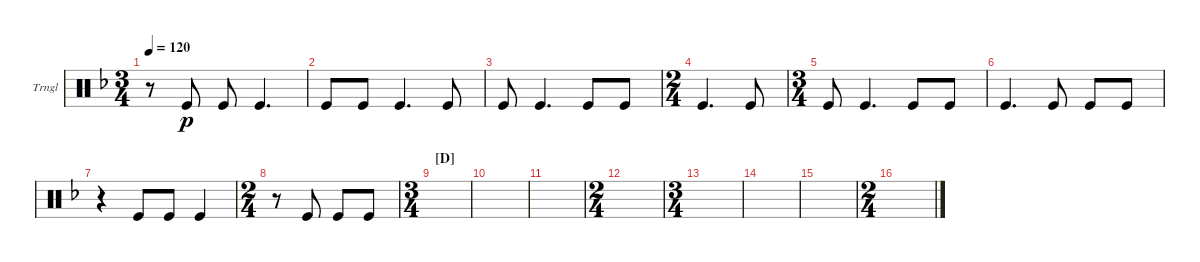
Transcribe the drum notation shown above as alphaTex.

\defaultSystemsLayout 4
\bracketExtendMode groupsimilarinstruments
\firstSystemTrackNameOrientation horizontal
\otherSystemsTrackNameOrientation horizontal
\track ("Triangle" "Trngl") {instrument percussion}
\staff {score}
\articulation defaults
\ts (3 4)
\tempo 120
\clef neutral
\scale
0.5
\ks f
r.8{dy p} "Kick (hit)".8 "Kick (hit)".8 "Kick (hit)".4{d} |
\scale
0.25 "Kick (hit)".8 "Kick (hit)".8 "Kick (hit)".4{d} "Kick (hit)".8 |
\scale
0.25 "Kick (hit)".8 "Kick (hit)".4{d} "Kick (hit)".8 "Kick (hit)".8 |
\ts (2 4)
\scale
0.4 "Kick (hit)".4{d} "Kick (hit)".8 |
\ts (3 4)
\scale
0.4 "Kick (hit)".8 "Kick (hit)".4{d} "Kick (hit)".8 "Kick (hit)".8 |
\scale
0.2 "Kick (hit)".4{d} "Kick (hit)".8 "Kick (hit)".8 "Kick (hit)".8 |
r.4 "Kick (hit)".8 "Kick (hit)".8 "Kick (hit)".4 |
\ts (2 4)
r.8 "Kick (hit)".8 "Kick (hit)".8 "Kick (hit)".8 |
\ts (3 4)
\section ("D" "")
|
|
|
\ts (2 4)
|
\ts (3 4)
|
|
|
\ts (2 4)
